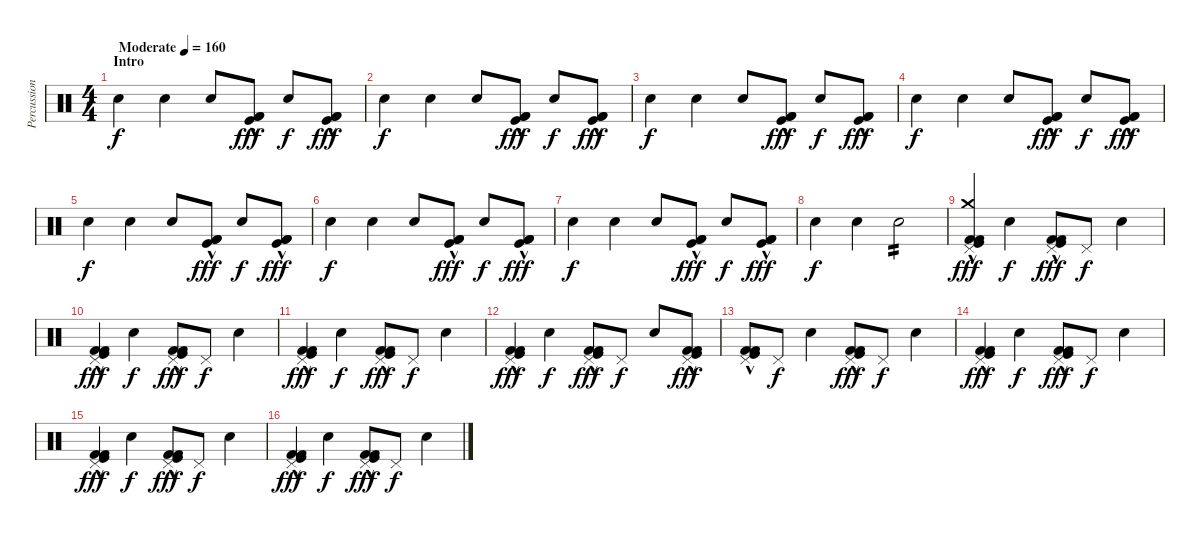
\track ("Percussion" "Percussion") {instrument percussion}
\staff {score}
\articulation defaults
\ts (4 4)
\section ("" "Intro")
\tempo (160 "Moderate")
\clef neutral
\ks c "Snare (hit) 2".4{dy f} "Snare (hit) 2".4 "Snare (hit) 2".8
("Kick (hit) 2"{hac} "Kick (hit)"{hac} "Kick (hit) 2"{hac}).8{dy fff} "Snare (hit) 2".8{dy f} ("Kick (hit) 2"{hac} "Kick (hit)"{hac} "Kick (hit) 2"{hac}).8{dy fff} |
"Snare (hit) 2".4{dy f} "Snare (hit) 2".4 "Snare (hit) 2".8 ("Kick (hit) 2"{hac} "Kick (hit)"{hac} "Kick (hit) 2"{hac}).8{dy fff} "Snare (hit) 2".8{dy f} ("Kick (hit) 2"{hac} "Kick (hit)"{hac} "Kick (hit) 2"{hac}).8{dy fff} |
"Snare (hit) 2".4{dy f} "Snare (hit) 2".4 "Snare (hit) 2".8 ("Kick (hit) 2"{hac} "Kick (hit)"{hac} "Kick (hit) 2"{hac}).8{dy fff} "Snare (hit) 2".8{dy f} ("Kick (hit) 2"{hac} "Kick (hit)"{hac} "Kick (hit) 2"{hac}).8{dy fff} |
"Snare (hit) 2".4{dy f} "Snare (hit) 2".4 "Snare (hit) 2".8 ("Kick (hit) 2"{hac} "Kick (hit)"{hac} "Kick (hit) 2"{hac}).8{dy fff} "Snare (hit) 2".8{dy f} ("Kick (hit) 2"{hac} "Kick (hit)"{hac} "Kick (hit) 2"{hac}).8{dy fff} |
"Snare (hit) 2".4{dy f} "Snare (hit) 2".4 "Snare (hit) 2".8 ("Kick (hit) 2"{hac} "Kick (hit)"{hac} "Kick (hit) 2"{hac}).8{dy fff} "Snare (hit) 2".8{dy f} ("Kick (hit) 2"{hac} "Kick (hit)"{hac} "Kick (hit) 2"{hac}).8{dy fff} |
"Snare (hit) 2".4{dy f} "Snare (hit) 2".4 "Snare (hit) 2".8 ("Kick (hit) 2"{hac} "Kick (hit)"{hac} "Kick (hit) 2"{hac}).8{dy fff} "Snare (hit) 2".8{dy f} ("Kick (hit) 2"{hac} "Kick (hit)"{hac} "Kick (hit) 2"{hac}).8{dy fff} |
"Snare (hit) 2".4{dy f} "Snare (hit) 2".4 "Snare (hit) 2".8 ("Kick (hit) 2"{hac} "Kick (hit)"{hac} "Kick (hit) 2"{hac}).8{dy fff} "Snare (hit) 2".8{dy f} ("Kick (hit) 2"{hac} "Kick (hit)"{hac} "Kick (hit) 2"{hac}).8{dy fff} |
"Snare (hit) 2".4{dy f} "Snare (hit) 2".4 "Snare (hit) 2".2{tp 2} |
("Crash medium (hit)" "Pedal Hi-Hat (hit)" "Kick (hit) 2"{hac} "Kick (hit)"{hac} "Kick (hit) 2").4{dy fff} "Snare (hit) 2".4{dy f} ("Pedal Hi-Hat (hit)" "Kick (hit) 2"{hac} "Kick (hit)"{hac} "Kick (hit) 2").8{dy fff} "Pedal Hi-Hat (hit)".8{dy f} "Snare (hit) 2".4 |
("Pedal Hi-Hat (hit)" "Kick (hit) 2"{hac} "Kick (hit)"{hac} "Kick (hit) 2").4{dy fff} "Snare (hit) 2".4{dy f} ("Pedal Hi-Hat (hit)" "Kick (hit) 2"{hac} "Kick (hit)"{hac} "Kick (hit) 2").8{dy fff} "Pedal Hi-Hat (hit)".8{dy f} "Snare (hit) 2".4 |
("Pedal Hi-Hat (hit)" "Kick (hit) 2"{hac} "Kick (hit)"{hac} "Kick (hit) 2").4{dy fff} "Snare (hit) 2".4{dy f} ("Pedal Hi-Hat (hit)" "Kick (hit) 2"{hac} "Kick (hit)"{hac} "Kick (hit) 2").8{dy fff} "Pedal Hi-Hat (hit)".8{dy f} "Snare (hit) 2".4 |
("Pedal Hi-Hat (hit)" "Kick (hit) 2"{hac} "Kick (hit)"{hac} "Kick (hit) 2").4{dy fff} "Snare (hit) 2".4{dy f} ("Pedal Hi-Hat (hit)" "Kick (hit) 2"{hac} "Kick (hit)"{hac} "Kick (hit) 2").8{dy fff} "Pedal Hi-Hat (hit)".8{dy f} "Snare (hit) 2".8 ("Pedal Hi-Hat (hit)" "Kick (hit) 2"{hac} "Kick (hit)"{hac} "Kick (hit) 2"{hac}).8{dy fff} |
("Pedal Hi-Hat (hit)" "Kick (hit) 2"{hac} "Kick (hit)"{hac} "Kick (hit) 2").8 "Pedal Hi-Hat (hit)".8{dy f} "Snare (hit) 2".4 ("Pedal Hi-Hat (hit)" "Kick (hit) 2"{hac} "Kick (hit)"{hac} "Kick (hit) 2").8{dy fff} "Pedal Hi-Hat (hit)".8{dy f} "Snare (hit) 2".4 |
("Pedal Hi-Hat (hit)" "Kick (hit) 2"{hac} "Kick (hit)"{hac} "Kick (hit) 2").4{dy fff} "Snare (hit) 2".4{dy f} ("Pedal Hi-Hat (hit)" "Kick (hit) 2"{hac} "Kick (hit)"{hac} "Kick (hit) 2").8{dy fff} "Pedal Hi-Hat (hit)".8{dy f} "Snare (hit) 2".4 |
("Pedal Hi-Hat (hit)" "Kick (hit) 2"{hac} "Kick (hit)"{hac} "Kick (hit) 2").4{dy fff} "Snare (hit) 2".4{dy f} ("Pedal Hi-Hat (hit)" "Kick (hit) 2"{hac} "Kick (hit)"{hac} "Kick (hit) 2").8{dy fff} "Pedal Hi-Hat (hit)".8{dy f} "Snare (hit) 2".4 |
("Pedal Hi-Hat (hit)" "Kick (hit) 2"{hac} "Kick (hit)"{hac} "Kick (hit) 2").4{dy fff} "Snare (hit) 2".4{dy f} ("Pedal Hi-Hat (hit)" "Kick (hit) 2"{hac} "Kick (hit)"{hac} "Kick (hit) 2").8{dy fff} "Pedal Hi-Hat (hit)".8{dy f} "Snare (hit) 2".4
